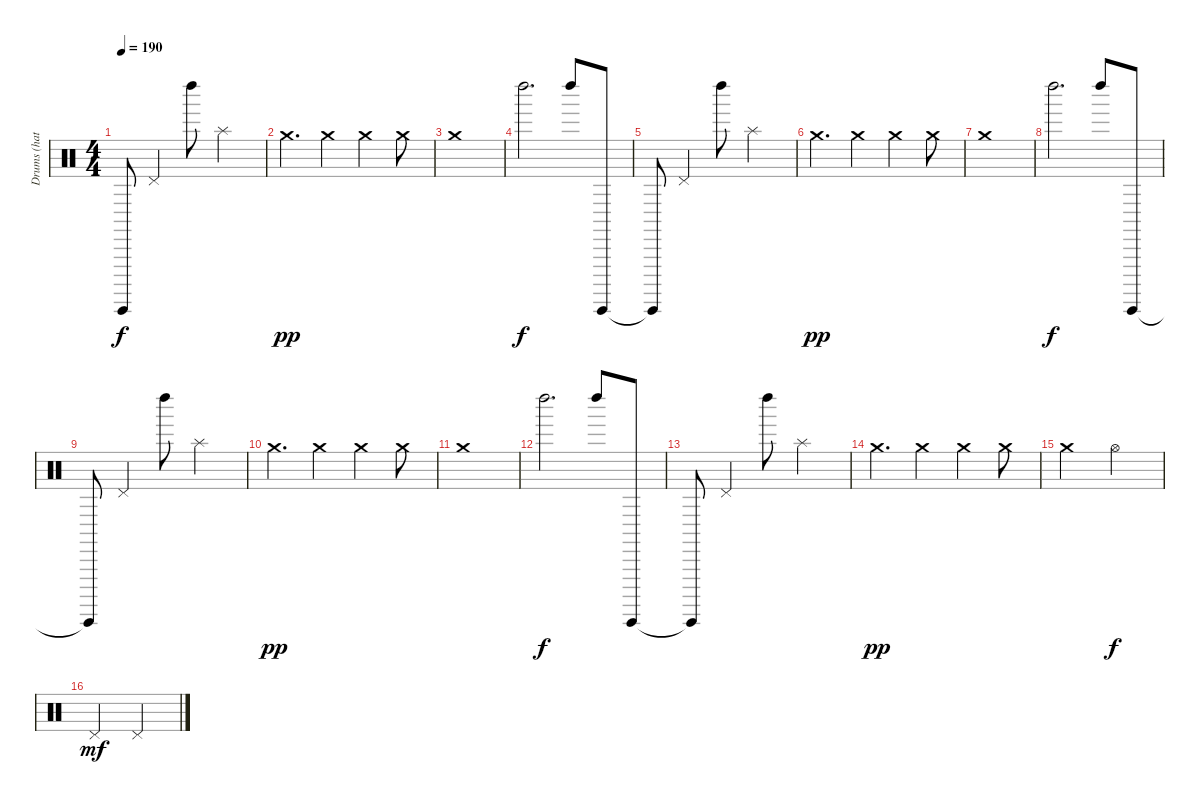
\track ("Drums (hats)" "Drums (hat") {instrument percussion}
\staff {score}
\articulation defaults
\ts (4 4)
\tempo 190
\clef neutral
\ks c "Guiro (hit)"{t}.8{dy f} "Pedal Hi-Hat (hit)".4 "Left Maraca (hit)".8 "Splash (hit)".2
|
"Crash medium (hit)".4{d dy pp} "Crash medium (hit)".4 "Crash medium (hit)".4 "Crash medium (hit)".8 |
"Crash medium (hit)".1 |
"Left Maraca (hit)".2{d dy f} "Left Maraca (hit)".8 "Guiro (hit)".8 |
"Guiro (hit)"{t}.8 "Pedal Hi-Hat (hit)".4 "Left Maraca (hit)".8 "Splash (hit)".2 |
"Crash medium (hit)".4{d dy pp} "Crash medium (hit)".4 "Crash medium (hit)".4 "Crash medium (hit)".8 |
"Crash medium (hit)".1 |
"Left Maraca (hit)".2{d dy f} "Left Maraca (hit)".8 "Guiro (hit)".8 |
"Guiro (hit)"{t}.8 "Pedal Hi-Hat (hit)".4 "Left Maraca (hit)".8 "Splash (hit)".2 |
"Crash medium (hit)".4{d dy pp} "Crash medium (hit)".4 "Crash medium (hit)".4 "Crash medium (hit)".8 |
"Crash medium (hit)".1 |
"Left Maraca (hit)".2{d dy f} "Left Maraca (hit)".8 "Guiro (hit)".8 |
"Guiro (hit)"{t}.8 "Pedal Hi-Hat (hit)".4 "Left Maraca (hit)".8 "Splash (hit)".2 |
"Crash medium (hit)".4{d dy pp} "Crash medium (hit)".4 "Crash medium (hit)".4 "Crash medium (hit)".8 |
"Crash medium (hit)".2 "Hi-Hat (open)".2{dy f} |
"Pedal Hi-Hat (hit)".2{dy mf} "Pedal Hi-Hat (hit)".2
